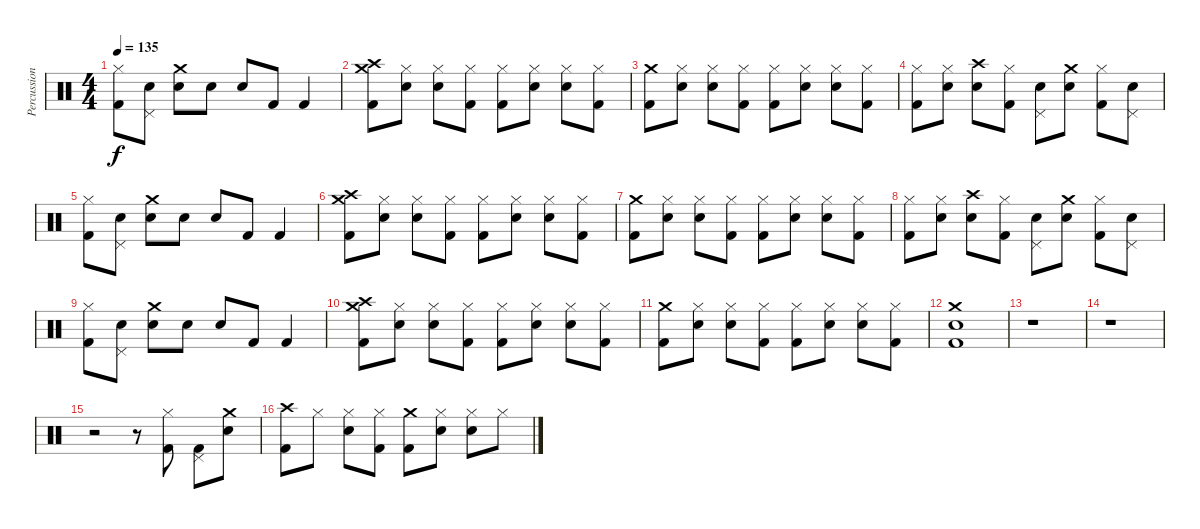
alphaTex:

\track ("Percussion" "Percussion") {instrument percussion}
\staff {score}
\articulation defaults
\ts (4 4)
\tempo 135
\clef neutral
\ks c
("Hi-Hat (closed)" "Kick (hit) 2").8{dy f} ("Pedal Hi-Hat (hit)" "Snare (hit) 2").8 ("Crash medium (hit)" "Snare (hit) 2").8 "Snare (hit) 2".8 "Snare (hit) 2".8 "Kick (hit) 2".8 "Kick (hit) 2".4 |
("Crash high (hit)" "Crash medium (hit)" "Kick (hit) 2").8 ("Hi-Hat (closed)" "Snare (hit) 2").8 ("Hi-Hat (closed)" "Snare (hit) 2").8 ("Hi-Hat (closed)" "Kick (hit) 2").8 ("Hi-Hat (closed)" "Kick (hit) 2").8 ("Hi-Hat (closed)" "Snare (hit) 2").8 ("Hi-Hat (closed)" "Snare (hit) 2").8 ("Hi-Hat (closed)" "Kick (hit) 2").8 |
("Crash medium (hit)" "Kick (hit) 2").8 ("Hi-Hat (closed)" "Snare (hit) 2").8 ("Hi-Hat (closed)" "Snare (hit) 2").8 ("Hi-Hat (closed)" "Kick (hit) 2").8 ("Hi-Hat (closed)" "Kick (hit) 2").8 ("Hi-Hat (closed)" "Snare (hit) 2").8 ("Hi-Hat (closed)" "Snare (hit) 2").8 ("Hi-Hat (closed)" "Kick (hit) 2").8 |
("Hi-Hat (closed)" "Kick (hit) 2").8 ("Hi-Hat (closed)" "Snare (hit) 2").8 ("Crash high (hit)" "Snare (hit) 2").8 ("Hi-Hat (closed)" "Kick (hit) 2").8 ("Pedal Hi-Hat (hit)" "Snare (hit) 2").8 ("Crash medium (hit)" "Snare (hit) 2").8 ("Hi-Hat (closed)" "Kick (hit) 2").8 ("Pedal Hi-Hat (hit)" "Snare (hit) 2").8 |
("Hi-Hat (closed)" "Kick (hit) 2").8 ("Pedal Hi-Hat (hit)" "Snare (hit) 2").8 ("Crash medium (hit)" "Snare (hit) 2").8 "Snare (hit) 2".8 "Snare (hit) 2".8 "Kick (hit) 2".8 "Kick (hit) 2".4 |
("Crash high (hit)" "Crash medium (hit)" "Kick (hit) 2").8 ("Hi-Hat (closed)" "Snare (hit) 2").8 ("Hi-Hat (closed)" "Snare (hit) 2").8 ("Hi-Hat (closed)" "Kick (hit) 2").8 ("Hi-Hat (closed)" "Kick (hit) 2").8 ("Hi-Hat (closed)" "Snare (hit) 2").8 ("Hi-Hat (closed)" "Snare (hit) 2").8 ("Hi-Hat (closed)" "Kick (hit) 2").8 |
("Crash medium (hit)" "Kick (hit) 2").8 ("Hi-Hat (closed)" "Snare (hit) 2").8 ("Hi-Hat (closed)" "Snare (hit) 2").8 ("Hi-Hat (closed)" "Kick (hit) 2").8 ("Hi-Hat (closed)" "Kick (hit) 2").8 ("Hi-Hat (closed)" "Snare (hit) 2").8 ("Hi-Hat (closed)" "Snare (hit) 2").8 ("Hi-Hat (closed)" "Kick (hit) 2").8 |
("Hi-Hat (closed)" "Kick (hit) 2").8 ("Hi-Hat (closed)" "Snare (hit) 2").8 ("Crash high (hit)" "Snare (hit) 2").8 ("Hi-Hat (closed)" "Kick (hit) 2").8 ("Pedal Hi-Hat (hit)" "Snare (hit) 2").8 ("Crash medium (hit)" "Snare (hit) 2").8 ("Hi-Hat (closed)" "Kick (hit) 2").8 ("Pedal Hi-Hat (hit)" "Snare (hit) 2").8 |
("Hi-Hat (closed)" "Kick (hit) 2").8 ("Pedal Hi-Hat (hit)" "Snare (hit) 2").8 ("Crash medium (hit)" "Snare (hit) 2").8 "Snare (hit) 2".8 "Snare (hit) 2".8 "Kick (hit) 2".8 "Kick (hit) 2".4 |
("Crash high (hit)" "Crash medium (hit)" "Kick (hit) 2").8 ("Hi-Hat (closed)" "Snare (hit) 2").8 ("Hi-Hat (closed)" "Snare (hit) 2").8 ("Hi-Hat (closed)" "Kick (hit) 2").8 ("Hi-Hat (closed)" "Kick (hit) 2").8 ("Hi-Hat (closed)" "Snare (hit) 2").8 ("Hi-Hat (closed)" "Snare (hit) 2").8 ("Hi-Hat (closed)" "Kick (hit) 2").8 |
("Crash medium (hit)" "Kick (hit) 2").8 ("Hi-Hat (closed)" "Snare (hit) 2").8 ("Hi-Hat (closed)" "Snare (hit) 2").8 ("Hi-Hat (closed)" "Kick (hit) 2").8 ("Hi-Hat (closed)" "Kick (hit) 2").8 ("Hi-Hat (closed)" "Snare (hit) 2").8 ("Hi-Hat (closed)" "Snare (hit) 2").8 ("Hi-Hat (closed)" "Kick (hit) 2").8 |
("Crash medium (hit)" "Snare (hit) 2" "Kick (hit) 2").1 |
r.1 |
r.1 |
r.2 r.8 ("Hi-Hat (closed)" "Kick (hit) 2").8 ("Pedal Hi-Hat (hit)" "Kick (hit) 2").8 ("Crash medium (hit)" "Snare (hit) 2").8 |
("Crash high (hit)" "Kick (hit) 2").8 "Hi-Hat (closed)".8 ("Hi-Hat (closed)" "Snare (hit) 2").8 ("Hi-Hat (closed)" "Kick (hit) 2").8 ("Crash medium (hit)" "Kick (hit) 2").8 ("Hi-Hat (closed)" "Snare (hit) 2").8 ("Hi-Hat (closed)" "Snare (hit) 2").8 "Hi-Hat (closed)".8
